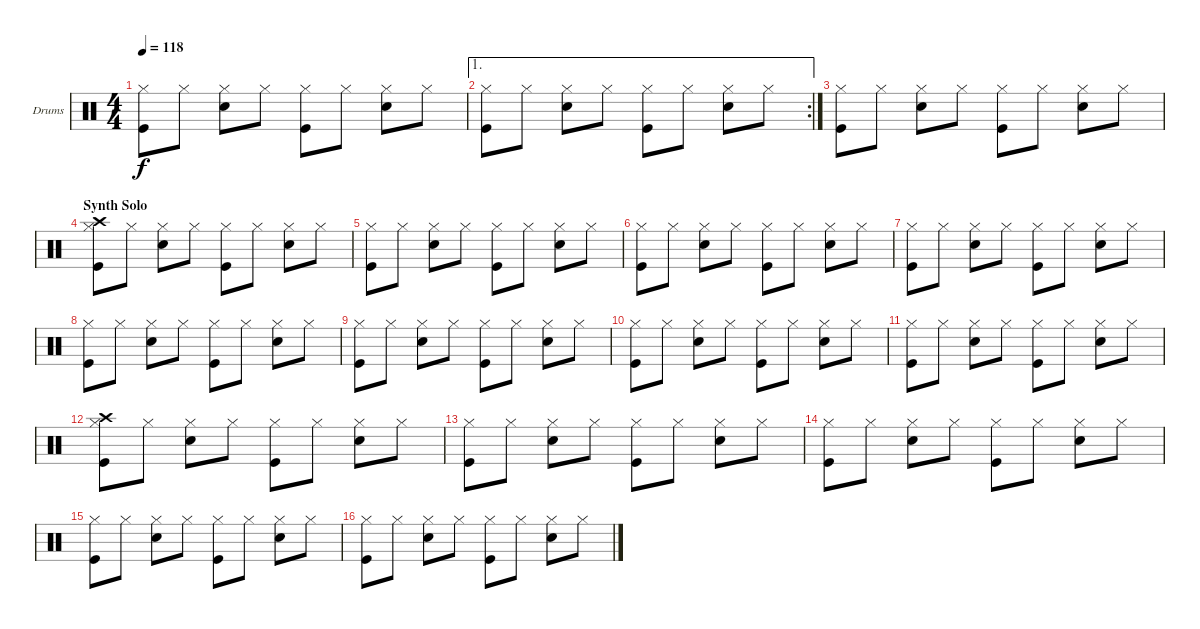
\bracketExtendMode groupsimilarinstruments
\firstSystemTrackNameOrientation horizontal
\otherSystemsTrackNameOrientation horizontal
\track ("Drumkit" "Drums") {instrument percussion}
\staff {score}
\articulation defaults
\ts (4 4)
\tempo 118
\clef neutral
\scale
0.321839
\ks c
("Hi-Hat (closed)" "Kick (hit)").8{dy f} "Hi-Hat (closed)".8 ("Hi-Hat (closed)" "Snare (hit) 2").8 "Hi-Hat (closed)".8 ("Hi-Hat (closed)" "Kick (hit)").8 "Hi-Hat (closed)".8 ("Hi-Hat (closed)" "Snare (hit) 2").8 "Hi-Hat (closed)".8 |
\ae 1
\rc 2
\scale
0.356322 ("Hi-Hat (closed)" "Kick (hit)").8 "Hi-Hat (closed)".8 ("Hi-Hat (closed)" "Snare (hit) 2").8 "Hi-Hat (closed)".8 ("Hi-Hat (closed)" "Kick (hit)").8 "Hi-Hat (closed)".8 ("Hi-Hat (closed)" "Snare (hit) 2").8 "Hi-Hat (closed)".8 |
("Hi-Hat (closed)" "Kick (hit)").8 "Hi-Hat (closed)".8 ("Hi-Hat (closed)" "Snare (hit) 2").8 "Hi-Hat (closed)".8 ("Hi-Hat (closed)" "Kick (hit)").8 "Hi-Hat (closed)".8 ("Hi-Hat (closed)" "Snare (hit) 2").8 "Hi-Hat (closed)".8 |
\section ("" "Synth Solo")
\scale
0.333333 ("Hi-Hat (closed)" "Kick (hit)" "Crash high (hit)").8 "Hi-Hat (closed)".8 ("Hi-Hat (closed)" "Snare (hit) 2").8 "Hi-Hat (closed)".8 ("Hi-Hat (closed)" "Kick (hit)").8 "Hi-Hat (closed)".8 ("Hi-Hat (closed)" "Snare (hit) 2").8 "Hi-Hat (closed)".8 |
\scale
0.333333 ("Hi-Hat (closed)" "Kick (hit)").8 "Hi-Hat (closed)".8 ("Hi-Hat (closed)" "Snare (hit) 2").8 "Hi-Hat (closed)".8 ("Hi-Hat (closed)" "Kick (hit)").8 "Hi-Hat (closed)".8 ("Hi-Hat (closed)" "Snare (hit) 2").8 "Hi-Hat (closed)".8 |
\scale
0.333333 ("Hi-Hat (closed)" "Kick (hit)").8 "Hi-Hat (closed)".8 ("Hi-Hat (closed)" "Snare (hit) 2").8 "Hi-Hat (closed)".8 ("Hi-Hat (closed)" "Kick (hit)").8 "Hi-Hat (closed)".8 ("Hi-Hat (closed)" "Snare (hit) 2").8 "Hi-Hat (closed)".8 |
\scale
0.333333 ("Hi-Hat (closed)" "Kick (hit)").8 "Hi-Hat (closed)".8 ("Hi-Hat (closed)" "Snare (hit) 2").8 "Hi-Hat (closed)".8 ("Hi-Hat (closed)" "Kick (hit)").8 "Hi-Hat (closed)".8 ("Hi-Hat (closed)" "Snare (hit) 2").8 "Hi-Hat (closed)".8 |
\scale
0.333333 ("Hi-Hat (closed)" "Kick (hit)").8 "Hi-Hat (closed)".8 ("Hi-Hat (closed)" "Snare (hit) 2").8 "Hi-Hat (closed)".8 ("Hi-Hat (closed)" "Kick (hit)").8 "Hi-Hat (closed)".8 ("Hi-Hat (closed)" "Snare (hit) 2").8 "Hi-Hat (closed)".8 |
\scale
0.333333 ("Hi-Hat (closed)" "Kick (hit)").8 "Hi-Hat (closed)".8 ("Hi-Hat (closed)" "Snare (hit) 2").8 "Hi-Hat (closed)".8 ("Hi-Hat (closed)" "Kick (hit)").8 "Hi-Hat (closed)".8 ("Hi-Hat (closed)" "Snare (hit) 2").8 "Hi-Hat (closed)".8 |
\scale
0.333333 ("Hi-Hat (closed)" "Kick (hit)").8 "Hi-Hat (closed)".8 ("Hi-Hat (closed)" "Snare (hit) 2").8 "Hi-Hat (closed)".8 ("Hi-Hat (closed)" "Kick (hit)").8 "Hi-Hat (closed)".8 ("Hi-Hat (closed)" "Snare (hit) 2").8 "Hi-Hat (closed)".8 |
\scale
0.333333 ("Hi-Hat (closed)" "Kick (hit)").8 "Hi-Hat (closed)".8 ("Hi-Hat (closed)" "Snare (hit) 2").8 "Hi-Hat (closed)".8 ("Hi-Hat (closed)" "Kick (hit)").8 "Hi-Hat (closed)".8 ("Hi-Hat (closed)" "Snare (hit) 2").8 "Hi-Hat (closed)".8 |
\scale
0.333333 ("Hi-Hat (closed)" "Kick (hit)" "Crash high (hit)").8 "Hi-Hat (closed)".8 ("Hi-Hat (closed)" "Snare (hit) 2").8 "Hi-Hat (closed)".8 ("Hi-Hat (closed)" "Kick (hit)").8 "Hi-Hat (closed)".8 ("Hi-Hat (closed)" "Snare (hit) 2").8 "Hi-Hat (closed)".8 |
\scale
0.333333 ("Hi-Hat (closed)" "Kick (hit)").8 "Hi-Hat (closed)".8 ("Hi-Hat (closed)" "Snare (hit) 2").8 "Hi-Hat (closed)".8 ("Hi-Hat (closed)" "Kick (hit)").8 "Hi-Hat (closed)".8 ("Hi-Hat (closed)" "Snare (hit) 2").8 "Hi-Hat (closed)".8 |
\scale
0.333333 ("Hi-Hat (closed)" "Kick (hit)").8 "Hi-Hat (closed)".8 ("Hi-Hat (closed)" "Snare (hit) 2").8 "Hi-Hat (closed)".8 ("Hi-Hat (closed)" "Kick (hit)").8 "Hi-Hat (closed)".8 ("Hi-Hat (closed)" "Snare (hit) 2").8 "Hi-Hat (closed)".8 |
\scale
0.333333 ("Hi-Hat (closed)" "Kick (hit)").8 "Hi-Hat (closed)".8 ("Hi-Hat (closed)" "Snare (hit) 2").8 "Hi-Hat (closed)".8 ("Hi-Hat (closed)" "Kick (hit)").8 "Hi-Hat (closed)".8 ("Hi-Hat (closed)" "Snare (hit) 2").8 "Hi-Hat (closed)".8 |
\scale
0.333333 ("Hi-Hat (closed)" "Kick (hit)").8 "Hi-Hat (closed)".8 ("Hi-Hat (closed)" "Snare (hit) 2").8 "Hi-Hat (closed)".8 ("Hi-Hat (closed)" "Kick (hit)").8 "Hi-Hat (closed)".8 ("Hi-Hat (closed)" "Snare (hit) 2").8 "Hi-Hat (closed)".8
